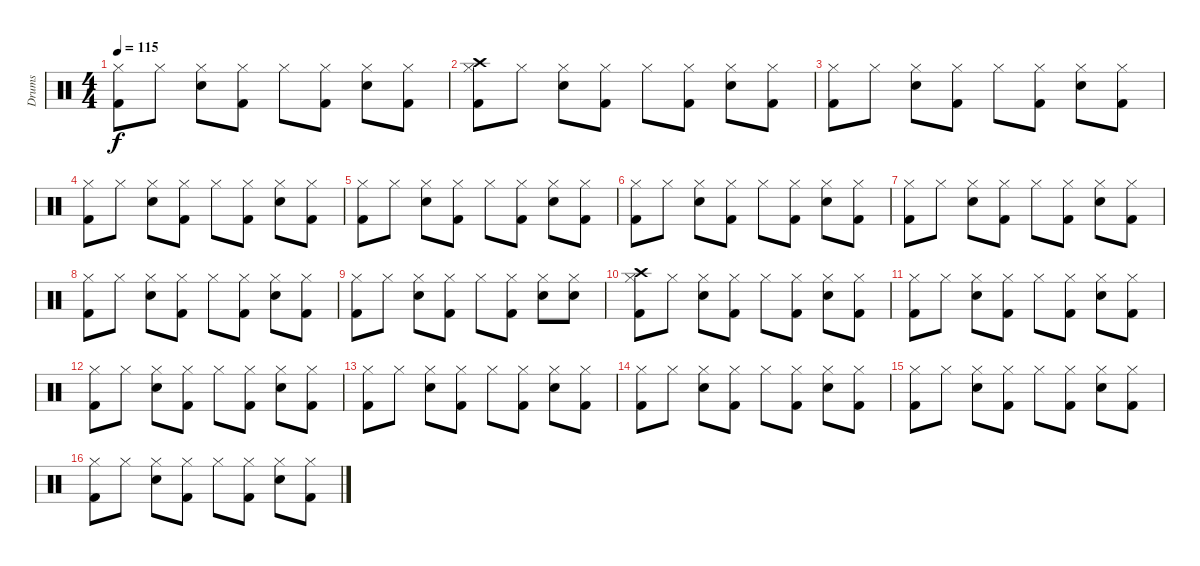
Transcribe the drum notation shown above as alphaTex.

\track ("Drums" "Drums") {instrument percussion}
\staff {score}
\articulation defaults
\ts (4 4)
\tempo 115
\clef neutral
\ks c
("Hi-Hat (closed)" "Kick (hit) 2").8{dy f} "Hi-Hat (closed)".8 ("Hi-Hat (closed)" "Snare (hit) 2").8 ("Hi-Hat (closed)" "Kick (hit) 2").8 "Hi-Hat (closed)".8 ("Hi-Hat (closed)" "Kick (hit) 2").8 ("Hi-Hat (closed)" "Snare (hit) 2").8 ("Hi-Hat (closed)" "Kick (hit) 2").8 |
("Crash high (hit)" "Hi-Hat (closed)" "Kick (hit) 2").8 "Hi-Hat (closed)".8 ("Hi-Hat (closed)" "Snare (hit) 2").8 ("Hi-Hat (closed)" "Kick (hit) 2").8 "Hi-Hat (closed)".8 ("Hi-Hat (closed)" "Kick (hit) 2").8 ("Hi-Hat (closed)" "Snare (hit) 2").8 ("Hi-Hat (closed)" "Kick (hit) 2").8 |
("Hi-Hat (closed)" "Kick (hit) 2").8 "Hi-Hat (closed)".8 ("Hi-Hat (closed)" "Snare (hit) 2").8 ("Hi-Hat (closed)" "Kick (hit) 2").8 "Hi-Hat (closed)".8 ("Hi-Hat (closed)" "Kick (hit) 2").8 ("Hi-Hat (closed)" "Snare (hit) 2").8 ("Hi-Hat (closed)" "Kick (hit) 2").8 |
("Hi-Hat (closed)" "Kick (hit) 2").8 "Hi-Hat (closed)".8 ("Hi-Hat (closed)" "Snare (hit) 2").8 ("Hi-Hat (closed)" "Kick (hit) 2").8 "Hi-Hat (closed)".8 ("Hi-Hat (closed)" "Kick (hit) 2").8 ("Hi-Hat (closed)" "Snare (hit) 2").8 ("Hi-Hat (closed)" "Kick (hit) 2").8 |
("Hi-Hat (closed)" "Kick (hit) 2").8 "Hi-Hat (closed)".8 ("Hi-Hat (closed)" "Snare (hit) 2").8 ("Hi-Hat (closed)" "Kick (hit) 2").8 "Hi-Hat (closed)".8 ("Hi-Hat (closed)" "Kick (hit) 2").8 ("Hi-Hat (closed)" "Snare (hit) 2").8 ("Hi-Hat (closed)" "Kick (hit) 2").8 |
("Hi-Hat (closed)" "Kick (hit) 2").8 "Hi-Hat (closed)".8 ("Hi-Hat (closed)" "Snare (hit) 2").8 ("Hi-Hat (closed)" "Kick (hit) 2").8 "Hi-Hat (closed)".8 ("Hi-Hat (closed)" "Kick (hit) 2").8 ("Hi-Hat (closed)" "Snare (hit) 2").8 ("Hi-Hat (closed)" "Kick (hit) 2").8 |
("Hi-Hat (closed)" "Kick (hit) 2").8 "Hi-Hat (closed)".8 ("Hi-Hat (closed)" "Snare (hit) 2").8 ("Hi-Hat (closed)" "Kick (hit) 2").8 "Hi-Hat (closed)".8 ("Hi-Hat (closed)" "Kick (hit) 2").8 ("Hi-Hat (closed)" "Snare (hit) 2").8 ("Hi-Hat (closed)" "Kick (hit) 2").8 |
("Hi-Hat (closed)" "Kick (hit) 2").8 "Hi-Hat (closed)".8 ("Hi-Hat (closed)" "Snare (hit) 2").8 ("Hi-Hat (closed)" "Kick (hit) 2").8 "Hi-Hat (closed)".8 ("Hi-Hat (closed)" "Kick (hit) 2").8 ("Hi-Hat (closed)" "Snare (hit) 2").8 ("Hi-Hat (closed)" "Kick (hit) 2").8 |
("Hi-Hat (closed)" "Kick (hit) 2").8 "Hi-Hat (closed)".8 ("Hi-Hat (closed)" "Snare (hit) 2").8 ("Hi-Hat (closed)" "Kick (hit) 2").8 "Hi-Hat (closed)".8 ("Hi-Hat (closed)" "Kick (hit) 2").8 ("Hi-Hat (closed)" "Snare (hit) 2").8 ("Hi-Hat (closed)" "Snare (hit) 2").8 |
("Crash high (hit)" "Hi-Hat (closed)" "Kick (hit) 2").8 "Hi-Hat (closed)".8 ("Hi-Hat (closed)" "Snare (hit) 2").8 ("Hi-Hat (closed)" "Kick (hit) 2").8 "Hi-Hat (closed)".8 ("Hi-Hat (closed)" "Kick (hit) 2").8 ("Hi-Hat (closed)" "Snare (hit) 2").8 ("Hi-Hat (closed)" "Kick (hit) 2").8 |
("Hi-Hat (closed)" "Kick (hit) 2").8 "Hi-Hat (closed)".8 ("Hi-Hat (closed)" "Snare (hit) 2").8 ("Hi-Hat (closed)" "Kick (hit) 2").8 "Hi-Hat (closed)".8 ("Hi-Hat (closed)" "Kick (hit) 2").8 ("Hi-Hat (closed)" "Snare (hit) 2").8 ("Hi-Hat (closed)" "Kick (hit) 2").8 |
("Hi-Hat (closed)" "Kick (hit) 2").8 "Hi-Hat (closed)".8 ("Hi-Hat (closed)" "Snare (hit) 2").8 ("Hi-Hat (closed)" "Kick (hit) 2").8 "Hi-Hat (closed)".8 ("Hi-Hat (closed)" "Kick (hit) 2").8 ("Hi-Hat (closed)" "Snare (hit) 2").8 ("Hi-Hat (closed)" "Kick (hit) 2").8 |
("Hi-Hat (closed)" "Kick (hit) 2").8 "Hi-Hat (closed)".8 ("Hi-Hat (closed)" "Snare (hit) 2").8 ("Hi-Hat (closed)" "Kick (hit) 2").8 "Hi-Hat (closed)".8 ("Hi-Hat (closed)" "Kick (hit) 2").8 ("Hi-Hat (closed)" "Snare (hit) 2").8 ("Hi-Hat (closed)" "Kick (hit) 2").8 |
("Hi-Hat (closed)" "Kick (hit) 2").8 "Hi-Hat (closed)".8 ("Hi-Hat (closed)" "Snare (hit) 2").8 ("Hi-Hat (closed)" "Kick (hit) 2").8 "Hi-Hat (closed)".8 ("Hi-Hat (closed)" "Kick (hit) 2").8 ("Hi-Hat (closed)" "Snare (hit) 2").8 ("Hi-Hat (closed)" "Kick (hit) 2").8 |
("Hi-Hat (closed)" "Kick (hit) 2").8 "Hi-Hat (closed)".8 ("Hi-Hat (closed)" "Snare (hit) 2").8 ("Hi-Hat (closed)" "Kick (hit) 2").8 "Hi-Hat (closed)".8 ("Hi-Hat (closed)" "Kick (hit) 2").8 ("Hi-Hat (closed)" "Snare (hit) 2").8 ("Hi-Hat (closed)" "Kick (hit) 2").8 |
("Hi-Hat (closed)" "Kick (hit) 2").8 "Hi-Hat (closed)".8 ("Hi-Hat (closed)" "Snare (hit) 2").8 ("Hi-Hat (closed)" "Kick (hit) 2").8 "Hi-Hat (closed)".8 ("Hi-Hat (closed)" "Kick (hit) 2").8 ("Hi-Hat (closed)" "Snare (hit) 2").8 ("Hi-Hat (closed)" "Kick (hit) 2").8
